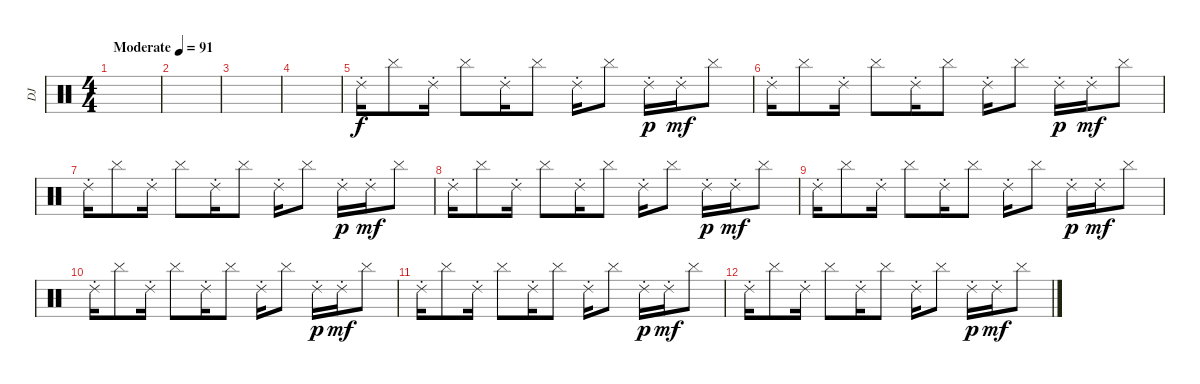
\track ("DJ" "DJ") {instrument percussion}
\staff {score}
\articulation defaults
\ts (4 4)
\tempo (91 "Moderate")
\clef neutral
\ks c
|
|
|
|
"Ride (choke) 2".16 "Cymbal (hit)".8 "Ride (choke) 2".16 "Cymbal (hit)".8 "Ride (choke) 2".16 "Cymbal (hit)".8 "Ride (choke) 2".16 "Cymbal (hit)".8 "Ride (choke) 2".16{dy p} "Ride (choke) 2".16{dy mf} "Cymbal (hit)".8 |
"Ride (choke) 2".16 "Cymbal (hit)".8 "Ride (choke) 2".16 "Cymbal (hit)".8 "Ride (choke) 2".16 "Cymbal (hit)".8 "Ride (choke) 2".16 "Cymbal (hit)".8 "Ride (choke) 2".16{dy p} "Ride (choke) 2".16{dy mf} "Cymbal (hit)".8 |
"Ride (choke) 2".16 "Cymbal (hit)".8 "Ride (choke) 2".16 "Cymbal (hit)".8 "Ride (choke) 2".16 "Cymbal (hit)".8 "Ride (choke) 2".16 "Cymbal (hit)".8 "Ride (choke) 2".16{dy p} "Ride (choke) 2".16{dy mf} "Cymbal (hit)".8 |
"Ride (choke) 2".16 "Cymbal (hit)".8 "Ride (choke) 2".16 "Cymbal (hit)".8 "Ride (choke) 2".16 "Cymbal (hit)".8 "Ride (choke) 2".16 "Cymbal (hit)".8 "Ride (choke) 2".16{dy p} "Ride (choke) 2".16{dy mf} "Cymbal (hit)".8 |
"Ride (choke) 2".16 "Cymbal (hit)".8 "Ride (choke) 2".16 "Cymbal (hit)".8 "Ride (choke) 2".16 "Cymbal (hit)".8 "Ride (choke) 2".16 "Cymbal (hit)".8 "Ride (choke) 2".16{dy p} "Ride (choke) 2".16{dy mf} "Cymbal (hit)".8 |
"Ride (choke) 2".16 "Cymbal (hit)".8 "Ride (choke) 2".16 "Cymbal (hit)".8 "Ride (choke) 2".16 "Cymbal (hit)".8 "Ride (choke) 2".16 "Cymbal (hit)".8 "Ride (choke) 2".16{dy p} "Ride (choke) 2".16{dy mf} "Cymbal (hit)".8 |
"Ride (choke) 2".16 "Cymbal (hit)".8 "Ride (choke) 2".16 "Cymbal (hit)".8 "Ride (choke) 2".16 "Cymbal (hit)".8 "Ride (choke) 2".16 "Cymbal (hit)".8 "Ride (choke) 2".16{dy p} "Ride (choke) 2".16{dy mf} "Cymbal (hit)".8 |
"Ride (choke) 2".16 "Cymbal (hit)".8 "Ride (choke) 2".16 "Cymbal (hit)".8 "Ride (choke) 2".16 "Cymbal (hit)".8 "Ride (choke) 2".16 "Cymbal (hit)".8 "Ride (choke) 2".16{dy p} "Ride (choke) 2".16{dy mf} "Cymbal (hit)".8
